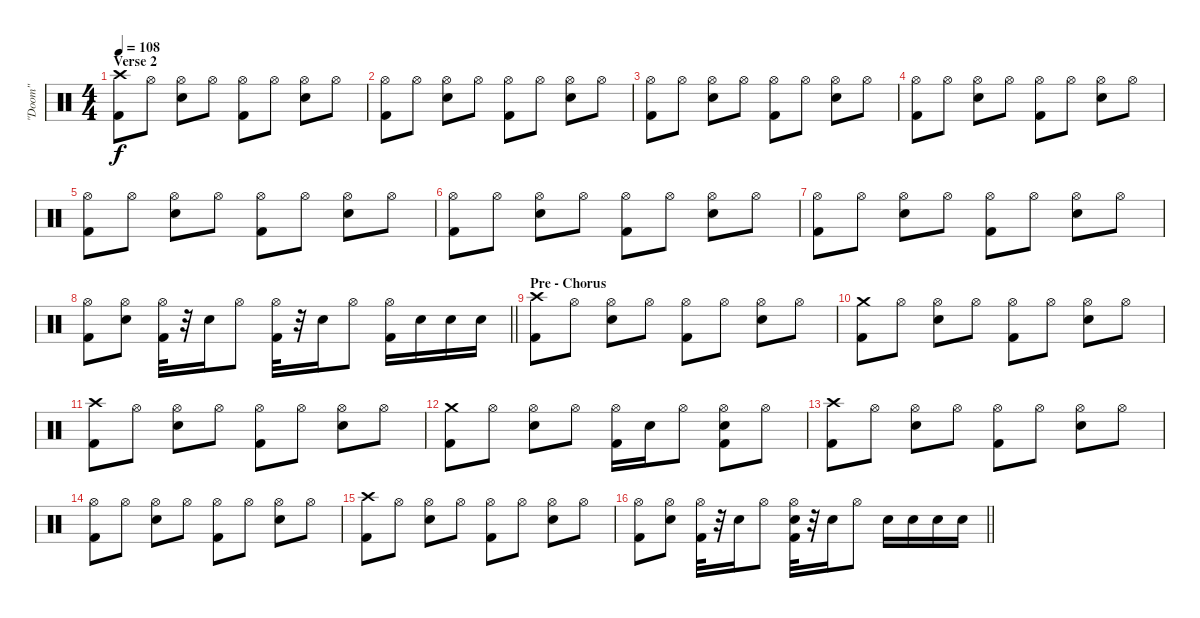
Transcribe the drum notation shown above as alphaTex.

\track ("\"Doom\"" "\"Doom\"") {instrument percussion}
\staff {score}
\articulation defaults
\ts (4 4)
\section ("" "Verse 2")
\tempo 108
\clef neutral
\ks c
("Crash high (hit)" "Kick (hit) 2").8{dy f} "Hi-Hat (open)".8 ("Hi-Hat (open)" "Snare (hit) 2").8 "Hi-Hat (open)".8 ("Hi-Hat (open)" "Kick (hit) 2").8 "Hi-Hat (open)".8 ("Hi-Hat (open)" "Snare (hit) 2").8 "Hi-Hat (open)".8 |
("Hi-Hat (open)" "Kick (hit) 2").8 "Hi-Hat (open)".8 ("Hi-Hat (open)" "Snare (hit) 2").8 "Hi-Hat (open)".8 ("Hi-Hat (open)" "Kick (hit) 2").8 "Hi-Hat (open)".8 ("Hi-Hat (open)" "Snare (hit) 2").8 "Hi-Hat (open)".8 |
("Hi-Hat (open)" "Kick (hit) 2").8 "Hi-Hat (open)".8 ("Hi-Hat (open)" "Snare (hit) 2").8 "Hi-Hat (open)".8 ("Hi-Hat (open)" "Kick (hit) 2").8 "Hi-Hat (open)".8 ("Hi-Hat (open)" "Snare (hit) 2").8 "Hi-Hat (open)".8 |
("Hi-Hat (open)" "Kick (hit) 2").8 "Hi-Hat (open)".8 ("Hi-Hat (open)" "Snare (hit) 2").8 "Hi-Hat (open)".8 ("Hi-Hat (open)" "Kick (hit) 2").8 "Hi-Hat (open)".8 ("Hi-Hat (open)" "Snare (hit) 2").8 "Hi-Hat (open)".8 |
("Hi-Hat (open)" "Kick (hit) 2").8 "Hi-Hat (open)".8 ("Hi-Hat (open)" "Snare (hit) 2").8 "Hi-Hat (open)".8 ("Hi-Hat (open)" "Kick (hit) 2").8 "Hi-Hat (open)".8 ("Hi-Hat (open)" "Snare (hit) 2").8 "Hi-Hat (open)".8 |
("Hi-Hat (open)" "Kick (hit) 2").8 "Hi-Hat (open)".8 ("Hi-Hat (open)" "Snare (hit) 2").8 "Hi-Hat (open)".8 ("Hi-Hat (open)" "Kick (hit) 2").8 "Hi-Hat (open)".8 ("Hi-Hat (open)" "Snare (hit) 2").8 "Hi-Hat (open)".8 |
("Hi-Hat (open)" "Kick (hit) 2").8 "Hi-Hat (open)".8 ("Hi-Hat (open)" "Snare (hit) 2").8 "Hi-Hat (open)".8 ("Hi-Hat (open)" "Kick (hit) 2").8 "Hi-Hat (open)".8 ("Hi-Hat (open)" "Snare (hit) 2").8 "Hi-Hat (open)".8 |
\barLineRight lightlight
("Hi-Hat (open)" "Kick (hit) 2").8 ("Hi-Hat (open)" "Snare (hit) 2").8 ("Hi-Hat (open)" "Kick (hit) 2").32 r.32 "Snare (hit) 2".16 "Hi-Hat (open)".8 ("Hi-Hat (open)" "Kick (hit) 2").32 r.32 "Snare (hit) 2".16 "Hi-Hat (open)".8 ("Hi-Hat (open)" "Kick (hit) 2").16 "Snare (hit) 2".16 "Snare (hit) 2".16 "Snare (hit) 2".16 |
\section ("" "Pre - Chorus")
("Crash high (hit)" "Kick (hit) 2").8 "Hi-Hat (open)".8 ("Hi-Hat (open)" "Snare (hit) 2").8 "Hi-Hat (open)".8 ("Hi-Hat (open)" "Kick (hit) 2").8 "Hi-Hat (open)".8 ("Hi-Hat (open)" "Snare (hit) 2").8 "Hi-Hat (open)".8 |
("Crash medium (hit)" "Kick (hit) 2").8 "Hi-Hat (open)".8 ("Hi-Hat (open)" "Snare (hit) 2").8 "Hi-Hat (open)".8 ("Hi-Hat (open)" "Kick (hit) 2").8 "Hi-Hat (open)".8 ("Hi-Hat (open)" "Snare (hit) 2").8 "Hi-Hat (open)".8 |
("Crash high (hit)" "Kick (hit) 2").8 "Hi-Hat (open)".8 ("Hi-Hat (open)" "Snare (hit) 2").8 "Hi-Hat (open)".8 ("Hi-Hat (open)" "Kick (hit) 2").8 "Hi-Hat (open)".8 ("Hi-Hat (open)" "Snare (hit) 2").8 "Hi-Hat (open)".8 |
("Crash medium (hit)" "Kick (hit) 2").8 "Hi-Hat (open)".8 ("Hi-Hat (open)" "Snare (hit) 2").8 "Hi-Hat (open)".8 ("Hi-Hat (open)" "Kick (hit) 2").16 "Snare (hit) 2".16 "Hi-Hat (open)".8 ("Hi-Hat (open)" "Snare (hit) 2" "Kick (hit) 2").8 "Hi-Hat (open)".8 |
("Crash high (hit)" "Kick (hit) 2").8 "Hi-Hat (open)".8 ("Hi-Hat (open)" "Snare (hit) 2").8 "Hi-Hat (open)".8 ("Hi-Hat (open)" "Kick (hit) 2").8 "Hi-Hat (open)".8 ("Hi-Hat (open)" "Snare (hit) 2").8 "Hi-Hat (open)".8 |
("Hi-Hat (open)" "Kick (hit) 2").8 "Hi-Hat (open)".8 ("Hi-Hat (open)" "Snare (hit) 2").8 "Hi-Hat (open)".8 ("Hi-Hat (open)" "Kick (hit) 2").8 "Hi-Hat (open)".8 ("Hi-Hat (open)" "Snare (hit) 2").8 "Hi-Hat (open)".8 |
("Crash high (hit)" "Kick (hit) 2").8 "Hi-Hat (open)".8 ("Hi-Hat (open)" "Snare (hit) 2").8 "Hi-Hat (open)".8 ("Hi-Hat (open)" "Kick (hit) 2").8 "Hi-Hat (open)".8 ("Hi-Hat (open)" "Snare (hit) 2").8 "Hi-Hat (open)".8 |
\barLineRight lightlight
("Hi-Hat (open)" "Kick (hit) 2").8 ("Hi-Hat (open)" "Snare (hit) 2").8 ("Hi-Hat (open)" "Kick (hit) 2").32 r.32 "Snare (hit) 2".16 "Hi-Hat (open)".8 ("Hi-Hat (open)" "Snare (hit) 2" "Kick (hit) 2").32 r.32 "Snare (hit) 2".16 "Hi-Hat (open)".8 "Snare (hit) 2".16 "Snare (hit) 2".16 "Snare (hit) 2".16 "Snare (hit) 2".16
